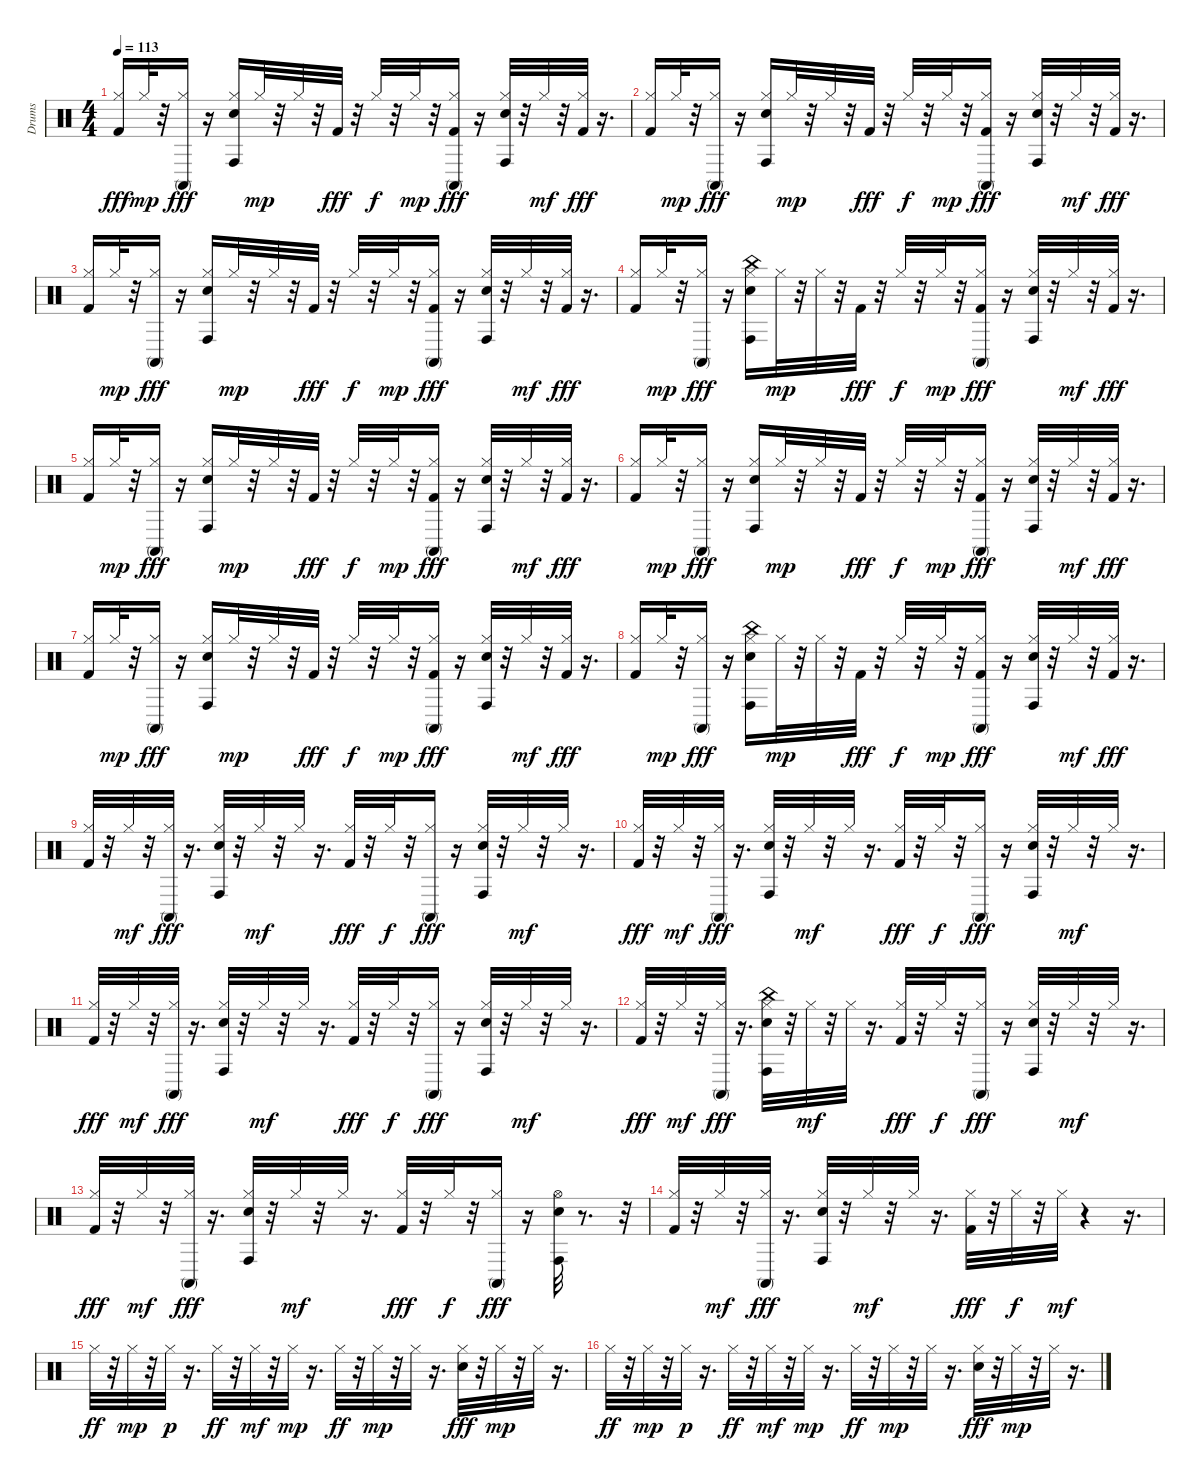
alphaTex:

\track ("Drums   " "Drums   ") {instrument percussion}
\staff {score}
\articulation defaults
\ts (4 4)
\tempo 113
\clef neutral
\ks c
("Hi-Hat (closed)" "Kick (hit) 2").16{dy fff} "Hi-Hat (closed)".32{dy mp} r.32 ("Hi-Hat (closed)" "Conga high (mute)").16{dy fff} r.16 ("Hi-Hat (closed)" "Electric Snare (hit)" "Conga high (hit)").16 "Hi-Hat (closed)".32{dy mp} r.32 "Hi-Hat (closed)".32 r.32 "Kick (hit) 2".32{dy fff} r.32 "Hi-Hat (closed)".32{dy f} r.32 "Hi-Hat (closed)".32{dy mp} r.32 ("Hi-Hat (closed)" "Kick (hit) 2" "Conga high (mute)").16{dy fff} r.16 ("Hi-Hat (closed)" "Electric Snare (hit)" "Conga high (hit)").32 r.32 "Hi-Hat (closed)".32{dy mf} r.32 ("Hi-Hat (closed)" "Kick (hit) 2").32{dy fff} r.16{d} |
("Hi-Hat (closed)" "Kick (hit) 2").16 "Hi-Hat (closed)".32{dy mp} r.32 ("Hi-Hat (closed)" "Conga high (mute)").16{dy fff} r.16 ("Hi-Hat (closed)" "Electric Snare (hit)" "Conga high (hit)").16 "Hi-Hat (closed)".32{dy mp} r.32 "Hi-Hat (closed)".32 r.32 "Kick (hit) 2".32{dy fff} r.32 "Hi-Hat (closed)".32{dy f} r.32 "Hi-Hat (closed)".32{dy mp} r.32 ("Hi-Hat (closed)" "Kick (hit) 2" "Conga high (mute)").16{dy fff} r.16 ("Hi-Hat (closed)" "Electric Snare (hit)" "Conga high (hit)").32 r.32 "Hi-Hat (closed)".32{dy mf} r.32 ("Hi-Hat (closed)" "Kick (hit) 2").32{dy fff} r.16{d} |
("Hi-Hat (closed)" "Kick (hit) 2").16 "Hi-Hat (closed)".32{dy mp} r.32 ("Hi-Hat (closed)" "Conga high (mute)").16{dy fff} r.16 ("Hi-Hat (closed)" "Electric Snare (hit)" "Conga high (hit)").16 "Hi-Hat (closed)".32{dy mp} r.32 "Hi-Hat (closed)".32 r.32 "Kick (hit) 2".32{dy fff} r.32 "Hi-Hat (closed)".32{dy f} r.32 "Hi-Hat (closed)".32{dy mp} r.32 ("Hi-Hat (closed)" "Kick (hit) 2" "Conga high (mute)").16{dy fff} r.16 ("Hi-Hat (closed)" "Electric Snare (hit)" "Conga high (hit)").32 r.32 "Hi-Hat (closed)".32{dy mf} r.32 ("Hi-Hat (closed)" "Kick (hit) 2").32{dy fff} r.16{d} |
("Hi-Hat (closed)" "Kick (hit) 2").16 "Hi-Hat (closed)".32{dy mp} r.32 ("Hi-Hat (closed)" "Conga high (mute)").16{dy fff} r.16 ("Hi-Hat (closed)" "Electric Snare (hit)" "China (hit)" "Conga high (hit)").16 "Hi-Hat (closed)".32{dy mp} r.32 "Hi-Hat (closed)".32 r.32 "Kick (hit) 2".32{dy fff} r.32 "Hi-Hat (closed)".32{dy f} r.32 "Hi-Hat (closed)".32{dy mp} r.32 ("Hi-Hat (closed)" "Kick (hit) 2" "Conga high (mute)").16{dy fff} r.16 ("Hi-Hat (closed)" "Electric Snare (hit)" "Conga high (hit)").32 r.32 "Hi-Hat (closed)".32{dy mf} r.32 ("Hi-Hat (closed)" "Kick (hit) 2").32{dy fff} r.16{d} |
("Hi-Hat (closed)" "Kick (hit) 2").16 "Hi-Hat (closed)".32{dy mp} r.32 ("Hi-Hat (closed)" "Conga high (mute)").16{dy fff} r.16 ("Hi-Hat (closed)" "Electric Snare (hit)" "Conga high (hit)").16 "Hi-Hat (closed)".32{dy mp} r.32 "Hi-Hat (closed)".32 r.32 "Kick (hit) 2".32{dy fff} r.32 "Hi-Hat (closed)".32{dy f} r.32 "Hi-Hat (closed)".32{dy mp} r.32 ("Hi-Hat (closed)" "Kick (hit) 2" "Conga high (mute)").16{dy fff} r.16 ("Hi-Hat (closed)" "Electric Snare (hit)" "Conga high (hit)").32 r.32 "Hi-Hat (closed)".32{dy mf} r.32 ("Hi-Hat (closed)" "Kick (hit) 2").32{dy fff} r.16{d} |
("Hi-Hat (closed)" "Kick (hit) 2").16 "Hi-Hat (closed)".32{dy mp} r.32 ("Hi-Hat (closed)" "Conga high (mute)").16{dy fff} r.16 ("Hi-Hat (closed)" "Electric Snare (hit)" "Conga high (hit)").16 "Hi-Hat (closed)".32{dy mp} r.32 "Hi-Hat (closed)".32 r.32 "Kick (hit) 2".32{dy fff} r.32 "Hi-Hat (closed)".32{dy f} r.32 "Hi-Hat (closed)".32{dy mp} r.32 ("Hi-Hat (closed)" "Kick (hit) 2" "Conga high (mute)").16{dy fff} r.16 ("Hi-Hat (closed)" "Electric Snare (hit)" "Conga high (hit)").32 r.32 "Hi-Hat (closed)".32{dy mf} r.32 ("Hi-Hat (closed)" "Kick (hit) 2").32{dy fff} r.16{d} |
("Hi-Hat (closed)" "Kick (hit) 2").16 "Hi-Hat (closed)".32{dy mp} r.32 ("Hi-Hat (closed)" "Conga high (mute)").16{dy fff} r.16 ("Hi-Hat (closed)" "Electric Snare (hit)" "Conga high (hit)").16 "Hi-Hat (closed)".32{dy mp} r.32 "Hi-Hat (closed)".32 r.32 "Kick (hit) 2".32{dy fff} r.32 "Hi-Hat (closed)".32{dy f} r.32 "Hi-Hat (closed)".32{dy mp} r.32 ("Hi-Hat (closed)" "Kick (hit) 2" "Conga high (mute)").16{dy fff} r.16 ("Hi-Hat (closed)" "Electric Snare (hit)" "Conga high (hit)").32 r.32 "Hi-Hat (closed)".32{dy mf} r.32 ("Hi-Hat (closed)" "Kick (hit) 2").32{dy fff} r.16{d} |
("Hi-Hat (closed)" "Kick (hit) 2").16 "Hi-Hat (closed)".32{dy mp} r.32 ("Hi-Hat (closed)" "Conga high (mute)").16{dy fff} r.16 ("Hi-Hat (closed)" "Electric Snare (hit)" "China (hit)" "Conga high (hit)").16 "Hi-Hat (closed)".32{dy mp} r.32 "Hi-Hat (closed)".32 r.32 "Kick (hit) 2".32{dy fff} r.32 "Hi-Hat (closed)".32{dy f} r.32 "Hi-Hat (closed)".32{dy mp} r.32 ("Hi-Hat (closed)" "Kick (hit) 2" "Conga high (mute)").16{dy fff} r.16 ("Hi-Hat (closed)" "Electric Snare (hit)" "Conga high (hit)").32 r.32 "Hi-Hat (closed)".32{dy mf} r.32 ("Hi-Hat (closed)" "Kick (hit) 2").32{dy fff} r.16{d} |
("Hi-Hat (closed)" "Kick (hit) 2").32 r.32 "Hi-Hat (closed)".32{dy mf} r.32 ("Hi-Hat (closed)" "Conga high (mute)").32{dy fff} r.16{d} ("Hi-Hat (closed)" "Electric Snare (hit)" "Conga high (hit)").32 r.32 "Hi-Hat (closed)".32{dy mf} r.32 "Hi-Hat (closed)".32 r.16{d} ("Hi-Hat (closed)" "Kick (hit) 2").32{dy fff} r.32 "Hi-Hat (closed)".32{dy f} r.32 ("Hi-Hat (closed)" "Conga high (mute)").16{dy fff} r.16 ("Hi-Hat (closed)" "Electric Snare (hit)" "Conga high (hit)").32 r.32 "Hi-Hat (closed)".32{dy mf} r.32 "Hi-Hat (closed)".32 r.16{d} |
("Hi-Hat (closed)" "Kick (hit) 2").32{dy fff} r.32 "Hi-Hat (closed)".32{dy mf} r.32 ("Hi-Hat (closed)" "Conga high (mute)").32{dy fff} r.16{d} ("Hi-Hat (closed)" "Electric Snare (hit)" "Conga high (hit)").32 r.32 "Hi-Hat (closed)".32{dy mf} r.32 "Hi-Hat (closed)".32 r.16{d} ("Hi-Hat (closed)" "Kick (hit) 2").32{dy fff} r.32 "Hi-Hat (closed)".32{dy f} r.32 ("Hi-Hat (closed)" "Conga high (mute)").16{dy fff} r.16 ("Hi-Hat (closed)" "Electric Snare (hit)" "Conga high (hit)").32 r.32 "Hi-Hat (closed)".32{dy mf} r.32 "Hi-Hat (closed)".32 r.16{d} |
("Hi-Hat (closed)" "Kick (hit) 2").32{dy fff} r.32 "Hi-Hat (closed)".32{dy mf} r.32 ("Hi-Hat (closed)" "Conga high (mute)").32{dy fff} r.16{d} ("Hi-Hat (closed)" "Electric Snare (hit)" "Conga high (hit)").32 r.32 "Hi-Hat (closed)".32{dy mf} r.32 "Hi-Hat (closed)".32 r.16{d} ("Hi-Hat (closed)" "Kick (hit) 2").32{dy fff} r.32 "Hi-Hat (closed)".32{dy f} r.32 ("Hi-Hat (closed)" "Conga high (mute)").16{dy fff} r.16 ("Hi-Hat (closed)" "Electric Snare (hit)" "Conga high (hit)").32 r.32 "Hi-Hat (closed)".32{dy mf} r.32 "Hi-Hat (closed)".32 r.16{d} |
("Hi-Hat (closed)" "Kick (hit) 2").32{dy fff} r.32 "Hi-Hat (closed)".32{dy mf} r.32 ("Hi-Hat (closed)" "Conga high (mute)").32{dy fff} r.16{d} ("Hi-Hat (closed)" "Electric Snare (hit)" "China (hit)" "Conga high (hit)").32 r.32 "Hi-Hat (closed)".32{dy mf} r.32 "Hi-Hat (closed)".32 r.16{d} ("Hi-Hat (closed)" "Kick (hit) 2").32{dy fff} r.32 "Hi-Hat (closed)".32{dy f} r.32 ("Hi-Hat (closed)" "Conga high (mute)").16{dy fff} r.16 ("Hi-Hat (closed)" "Electric Snare (hit)" "Conga high (hit)").32 r.32 "Hi-Hat (closed)".32{dy mf} r.32 "Hi-Hat (closed)".32 r.16{d} |
("Hi-Hat (closed)" "Kick (hit) 2").32{dy fff} r.32 "Hi-Hat (closed)".32{dy mf} r.32 ("Hi-Hat (closed)" "Conga high (mute)").32{dy fff} r.16{d} ("Hi-Hat (closed)" "Electric Snare (hit)" "Conga high (hit)").32 r.32 "Hi-Hat (closed)".32{dy mf} r.32 "Hi-Hat (closed)".32 r.16{d} ("Hi-Hat (closed)" "Kick (hit) 2").32{dy fff} r.32 "Hi-Hat (closed)".32{dy f} r.32 ("Hi-Hat (closed)" "Conga high (mute)").16{dy fff} r.16 ("Electric Snare (hit)" "Hi-Hat (open)" "Conga high (hit)").32 r.8{d} r.32 |
("Hi-Hat (closed)" "Kick (hit) 2").32 r.32 "Hi-Hat (closed)".32{dy mf} r.32 ("Hi-Hat (closed)" "Conga high (mute)").32{dy fff} r.16{d} ("Hi-Hat (closed)" "Electric Snare (hit)" "Conga high (hit)").32 r.32 "Hi-Hat (closed)".32{dy mf} r.32 "Hi-Hat (closed)".32 r.16{d} ("Hi-Hat (closed)" "Kick (hit) 2").32{dy fff} r.32 "Hi-Hat (closed)".32{dy f} r.32 "Hi-Hat (closed)".32{dy mf} r.4 r.16{d} |
"Hi-Hat (closed)".32{dy ff} r.32 "Hi-Hat (closed)".32{dy mp} r.32 "Hi-Hat (closed)".32{dy p} r.16{d} "Hi-Hat (closed)".32{dy ff} r.32 "Hi-Hat (closed)".32{dy mf} r.32 "Hi-Hat (closed)".32{dy mp} r.16{d} "Hi-Hat (closed)".32{dy ff} r.32 "Hi-Hat (closed)".32{dy mp} r.32 "Hi-Hat (closed)".32 r.16{d} ("Hi-Hat (closed)" "Hand Clap (hit)").32{dy fff} r.32 "Hi-Hat (closed)".32{dy mp} r.32 "Hi-Hat (closed)".32 r.16{d} |
"Hi-Hat (closed)".32{dy ff} r.32 "Hi-Hat (closed)".32{dy mp} r.32 "Hi-Hat (closed)".32{dy p} r.16{d} "Hi-Hat (closed)".32{dy ff} r.32 "Hi-Hat (closed)".32{dy mf} r.32 "Hi-Hat (closed)".32{dy mp} r.16{d} "Hi-Hat (closed)".32{dy ff} r.32 "Hi-Hat (closed)".32{dy mp} r.32 "Hi-Hat (closed)".32 r.16{d} ("Hi-Hat (closed)" "Hand Clap (hit)").32{dy fff} r.32 "Hi-Hat (closed)".32{dy mp} r.32 "Hi-Hat (closed)".32 r.16{d}
